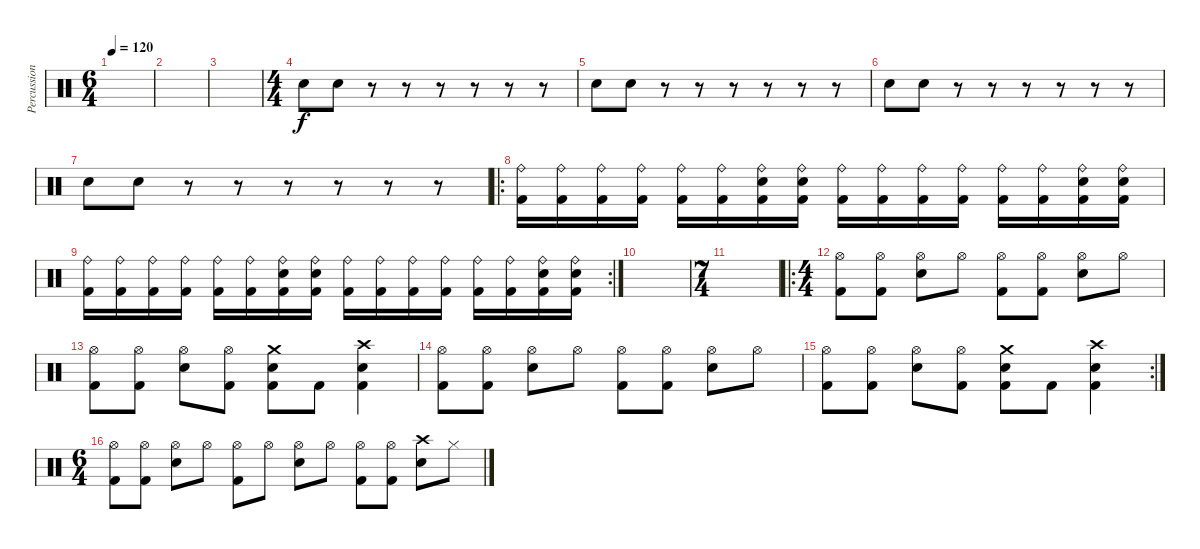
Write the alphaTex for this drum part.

\track ("Percussion" "Percussion") {instrument percussion}
\staff {score}
\articulation defaults
\ts (6 4)
\tempo 120
\clef neutral
\ks c
|
|
|
\ts (4 4)
"Snare (hit) 2".8 "Snare (hit) 2".8 r.8 r.8 r.8 r.8 r.8 r.8 |
"Snare (hit) 2".8 "Snare (hit) 2".8 r.8 r.8 r.8 r.8 r.8 r.8 |
"Snare (hit) 2".8 "Snare (hit) 2".8 r.8 r.8 r.8 r.8 r.8 r.8 |
"Snare (hit) 2".8 "Snare (hit) 2".8 r.8 r.8 r.8 r.8 r.8 r.8 |
\ro
("Ride (bell)" "Kick (hit) 2").16 ("Ride (bell)" "Kick (hit) 2").16 ("Ride (bell)" "Kick (hit) 2").16 ("Ride (bell)" "Kick (hit) 2").16 ("Ride (bell)" "Kick (hit) 2").16 ("Ride (bell)" "Kick (hit) 2").16 ("Ride (bell)" "Electric Snare (hit)" "Kick (hit) 2").16 ("Ride (bell)" "Electric Snare (hit)" "Kick (hit) 2").16 ("Ride (bell)" "Kick (hit) 2").16 ("Ride (bell)" "Kick (hit) 2").16 ("Ride (bell)" "Kick (hit) 2").16 ("Ride (bell)" "Kick (hit) 2").16 ("Ride (bell)" "Kick (hit) 2").16 ("Ride (bell)" "Kick (hit) 2").16 ("Ride (bell)" "Electric Snare (hit)" "Kick (hit) 2").16 ("Ride (bell)" "Electric Snare (hit)" "Kick (hit) 2").16 |
\rc 2
("Ride (bell)" "Kick (hit) 2").16 ("Ride (bell)" "Kick (hit) 2").16 ("Ride (bell)" "Kick (hit) 2").16 ("Ride (bell)" "Kick (hit) 2").16 ("Ride (bell)" "Kick (hit) 2").16 ("Ride (bell)" "Kick (hit) 2").16 ("Ride (bell)" "Electric Snare (hit)" "Kick (hit) 2").16 ("Ride (bell)" "Electric Snare (hit)" "Kick (hit) 2").16 ("Ride (bell)" "Kick (hit) 2").16 ("Ride (bell)" "Kick (hit) 2").16 ("Ride (bell)" "Kick (hit) 2").16 ("Ride (bell)" "Kick (hit) 2").16 ("Ride (bell)" "Kick (hit) 2").16 ("Ride (bell)" "Kick (hit) 2").16 ("Ride (bell)" "Electric Snare (hit)" "Kick (hit) 2").16 ("Ride (bell)" "Electric Snare (hit)" "Kick (hit) 2").16 |
|
\ts (7 4)
|
\ro
\ts (4 4)
("Hi-Hat (open)" "Kick (hit) 2").8 ("Hi-Hat (open)" "Kick (hit) 2").8 ("Hi-Hat (open)" "Snare (hit) 2").8 "Hi-Hat (open)".8 ("Hi-Hat (open)" "Kick (hit) 2").8 ("Hi-Hat (open)" "Kick (hit) 2").8 ("Hi-Hat (open)" "Snare (hit) 2").8 "Hi-Hat (open)".8 |
("Hi-Hat (open)" "Kick (hit) 2").8 ("Hi-Hat (open)" "Kick (hit) 2").8 ("Hi-Hat (open)" "Snare (hit) 2").8 ("Hi-Hat (open)" "Kick (hit) 2").8 ("Crash medium (hit)" "Snare (hit) 2" "Kick (hit) 2").8 "Kick (hit) 2".8 ("Crash high (hit)" "Snare (hit) 2" "Kick (hit) 2").4 |
("Hi-Hat (open)" "Kick (hit) 2").8 ("Hi-Hat (open)" "Kick (hit) 2").8 ("Hi-Hat (open)" "Snare (hit) 2").8 "Hi-Hat (open)".8 ("Hi-Hat (open)" "Kick (hit) 2").8 ("Hi-Hat (open)" "Kick (hit) 2").8 ("Hi-Hat (open)" "Snare (hit) 2").8 "Hi-Hat (open)".8 |
\rc 2
("Hi-Hat (open)" "Kick (hit) 2").8 ("Hi-Hat (open)" "Kick (hit) 2").8 ("Hi-Hat (open)" "Snare (hit) 2").8 ("Hi-Hat (open)" "Kick (hit) 2").8 ("Crash medium (hit)" "Snare (hit) 2" "Kick (hit) 2").8 "Kick (hit) 2".8 ("Crash high (hit)" "Snare (hit) 2" "Kick (hit) 2").4 |
\ts (6 4)
("Hi-Hat (open)" "Kick (hit) 2").8 ("Hi-Hat (open)" "Kick (hit) 2").8 ("Hi-Hat (open)" "Electric Snare (hit)").8 "Hi-Hat (open)".8 ("Hi-Hat (open)" "Kick (hit) 2").8 "Hi-Hat (open)".8 ("Hi-Hat (open)" "Electric Snare (hit)").8 "Hi-Hat (open)".8 ("Hi-Hat (open)" "Kick (hit) 2").8 ("Hi-Hat (open)" "Kick (hit) 2").8 ("Crash high (hit)" "Electric Snare (hit)").8 "Hi-Hat (closed)".8
